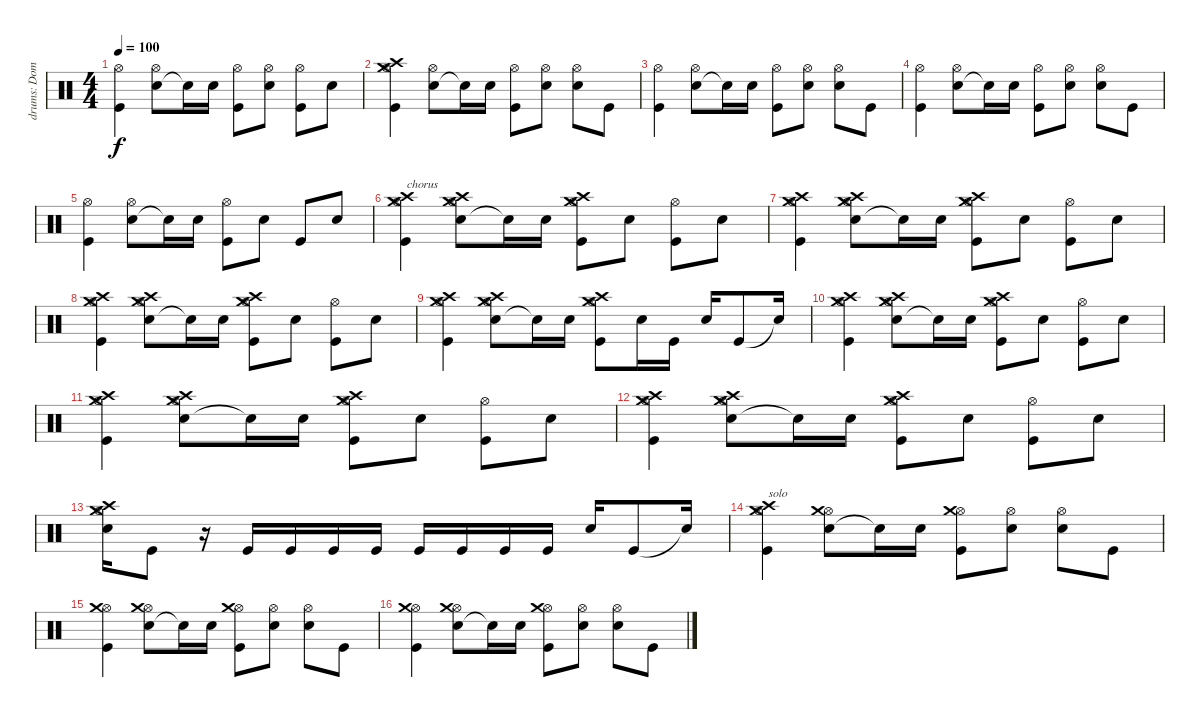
\track ("drums: Dom" "drums: Dom") {instrument percussion}
\staff {score}
\articulation defaults
\ts (4 4)
\tempo 100
\clef neutral
\ks c
("Kick (hit)" "Hi-Hat (open)").4{dy f} ("Snare (hit) 2" "Hi-Hat (open)").8 "Snare (hit)"{t}.16 "Snare (hit) 2".16 ("Kick (hit)" "Hi-Hat (open)").8 ("Snare (hit) 2" "Hi-Hat (open)").8 ("Kick (hit)" "Hi-Hat (open)").8 "Snare (hit) 2".8 |
("Kick (hit)" "Hi-Hat (open)" "Crash high (hit)" "Crash medium (hit)").4 ("Snare (hit) 2" "Hi-Hat (open)").8 "Snare (hit)"{t}.16 "Snare (hit) 2".16 ("Kick (hit)" "Hi-Hat (open)").8 ("Snare (hit) 2" "Hi-Hat (open)").8 ("Snare (hit) 2" "Hi-Hat (open)").8 "Kick (hit)".8 |
("Kick (hit)" "Hi-Hat (open)").4 ("Snare (hit) 2" "Hi-Hat (open)").8 "Snare (hit)"{t}.16 "Snare (hit) 2".16 ("Kick (hit)" "Hi-Hat (open)").8 ("Snare (hit) 2" "Hi-Hat (open)").8 ("Snare (hit) 2" "Hi-Hat (open)").8 "Kick (hit)".8 |
("Kick (hit)" "Hi-Hat (open)").4 ("Snare (hit) 2" "Hi-Hat (open)").8 "Snare (hit)"{t}.16 "Snare (hit) 2".16 ("Kick (hit)" "Hi-Hat (open)").8 ("Snare (hit) 2" "Hi-Hat (open)").8 ("Snare (hit) 2" "Hi-Hat (open)").8 "Kick (hit)".8 |
("Kick (hit)" "Hi-Hat (open)").4 ("Snare (hit) 2" "Hi-Hat (open)").8 "Snare (hit)"{t}.16 "Snare (hit) 2".16 ("Kick (hit)" "Hi-Hat (open)").8 "Snare (hit) 2".8 "Kick (hit)".8 "Snare (hit) 2".8 |
("Kick (hit)" "Hi-Hat (open)" "Crash high (hit)" "Crash medium (hit)").4{txt "chorus"} ("Snare (hit) 2" "Hi-Hat (open)" "Crash high (hit)" "Crash medium (hit)").8 "Snare (hit)"{t}.16 "Snare (hit) 2".16 ("Kick (hit)" "Hi-Hat (open)" "Crash high (hit)" "Crash medium (hit)").8 "Snare (hit) 2".8 ("Kick (hit)" "Hi-Hat (open)").8 "Snare (hit) 2".8 |
("Kick (hit)" "Hi-Hat (open)" "Crash high (hit)" "Crash medium (hit)").4 ("Snare (hit) 2" "Hi-Hat (open)" "Crash high (hit)" "Crash medium (hit)").8 "Snare (hit)"{t}.16 "Snare (hit) 2".16 ("Kick (hit)" "Hi-Hat (open)" "Crash high (hit)" "Crash medium (hit)").8 "Snare (hit) 2".8 ("Kick (hit)" "Hi-Hat (open)").8 "Snare (hit) 2".8 |
("Kick (hit)" "Hi-Hat (open)" "Crash high (hit)" "Crash medium (hit)").4 ("Snare (hit) 2" "Hi-Hat (open)" "Crash high (hit)" "Crash medium (hit)").8 "Snare (hit)"{t}.16 "Snare (hit) 2".16 ("Kick (hit)" "Hi-Hat (open)" "Crash high (hit)" "Crash medium (hit)").8 "Snare (hit) 2".8 ("Kick (hit)" "Hi-Hat (open)").8 "Snare (hit) 2".8 |
("Kick (hit)" "Hi-Hat (open)" "Crash high (hit)" "Crash medium (hit)").4 ("Snare (hit) 2" "Hi-Hat (open)" "Crash high (hit)" "Crash medium (hit)").8 "Snare (hit)"{t}.16 "Snare (hit) 2".16 ("Kick (hit)" "Hi-Hat (open)" "Crash high (hit)" "Crash medium (hit)").8 "Snare (hit) 2".16 "Kick (hit)".16 "Snare (hit) 2".16 "Kick (hit)".8 "Snare (hit)"{t}.16 |
("Kick (hit)" "Hi-Hat (open)" "Crash high (hit)" "Crash medium (hit)").4 ("Snare (hit) 2" "Hi-Hat (open)" "Crash high (hit)" "Crash medium (hit)").8 "Snare (hit)"{t}.16 "Snare (hit) 2".16 ("Kick (hit)" "Hi-Hat (open)" "Crash high (hit)" "Crash medium (hit)").8 "Snare (hit) 2".8 ("Kick (hit)" "Hi-Hat (open)").8 "Snare (hit) 2".8 |
("Kick (hit)" "Hi-Hat (open)" "Crash high (hit)" "Crash medium (hit)").4 ("Snare (hit) 2" "Hi-Hat (open)" "Crash high (hit)" "Crash medium (hit)").8 "Snare (hit)"{t}.16 "Snare (hit) 2".16 ("Kick (hit)" "Hi-Hat (open)" "Crash high (hit)" "Crash medium (hit)").8 "Snare (hit) 2".8 ("Kick (hit)" "Hi-Hat (open)").8 "Snare (hit) 2".8 |
("Kick (hit)" "Hi-Hat (open)" "Crash high (hit)" "Crash medium (hit)").4 ("Snare (hit) 2" "Hi-Hat (open)" "Crash high (hit)" "Crash medium (hit)").8 "Snare (hit)"{t}.16 "Snare (hit) 2".16 ("Kick (hit)" "Hi-Hat (open)" "Crash high (hit)" "Crash medium (hit)").8 "Snare (hit) 2".8 ("Kick (hit)" "Hi-Hat (open)").8 "Snare (hit) 2".8 |
("Snare (hit) 2" "Hi-Hat (open)" "Crash high (hit)" "Crash medium (hit)").16 "Kick (hit)".8 r.16 "Kick (hit)".16 "Kick (hit)".16 "Kick (hit)".16 "Kick (hit)".16 "Kick (hit)".16 "Kick (hit)".16 "Kick (hit)".16 "Kick (hit)".16 "Snare (hit) 2".16 "Kick (hit)".8 "Snare (hit)"{t}.16 |
("Kick (hit)" "Hi-Hat (open)" "Crash high (hit)" "Crash medium (hit)").4{txt "solo"} ("Snare (hit) 2" "Hi-Hat (open)" "Crash medium (hit)").8 "Snare (hit)"{t}.16 "Snare (hit) 2".16 ("Kick (hit)" "Hi-Hat (open)" "Crash medium (hit)").8 ("Snare (hit) 2" "Hi-Hat (open)").8 ("Snare (hit) 2" "Hi-Hat (open)").8 "Kick (hit)".8 |
("Kick (hit)" "Hi-Hat (open)" "Crash medium (hit)").4 ("Snare (hit) 2" "Hi-Hat (open)" "Crash medium (hit)").8 "Snare (hit)"{t}.16 "Snare (hit) 2".16 ("Kick (hit)" "Hi-Hat (open)" "Crash medium (hit)").8 ("Snare (hit) 2" "Hi-Hat (open)").8 ("Snare (hit) 2" "Hi-Hat (open)").8 "Kick (hit)".8 |
("Kick (hit)" "Hi-Hat (open)" "Crash medium (hit)").4 ("Snare (hit) 2" "Hi-Hat (open)" "Crash medium (hit)").8 "Snare (hit)"{t}.16 "Snare (hit) 2".16 ("Kick (hit)" "Hi-Hat (open)" "Crash medium (hit)").8 ("Snare (hit) 2" "Hi-Hat (open)").8 ("Snare (hit) 2" "Hi-Hat (open)").8 "Kick (hit)".8
